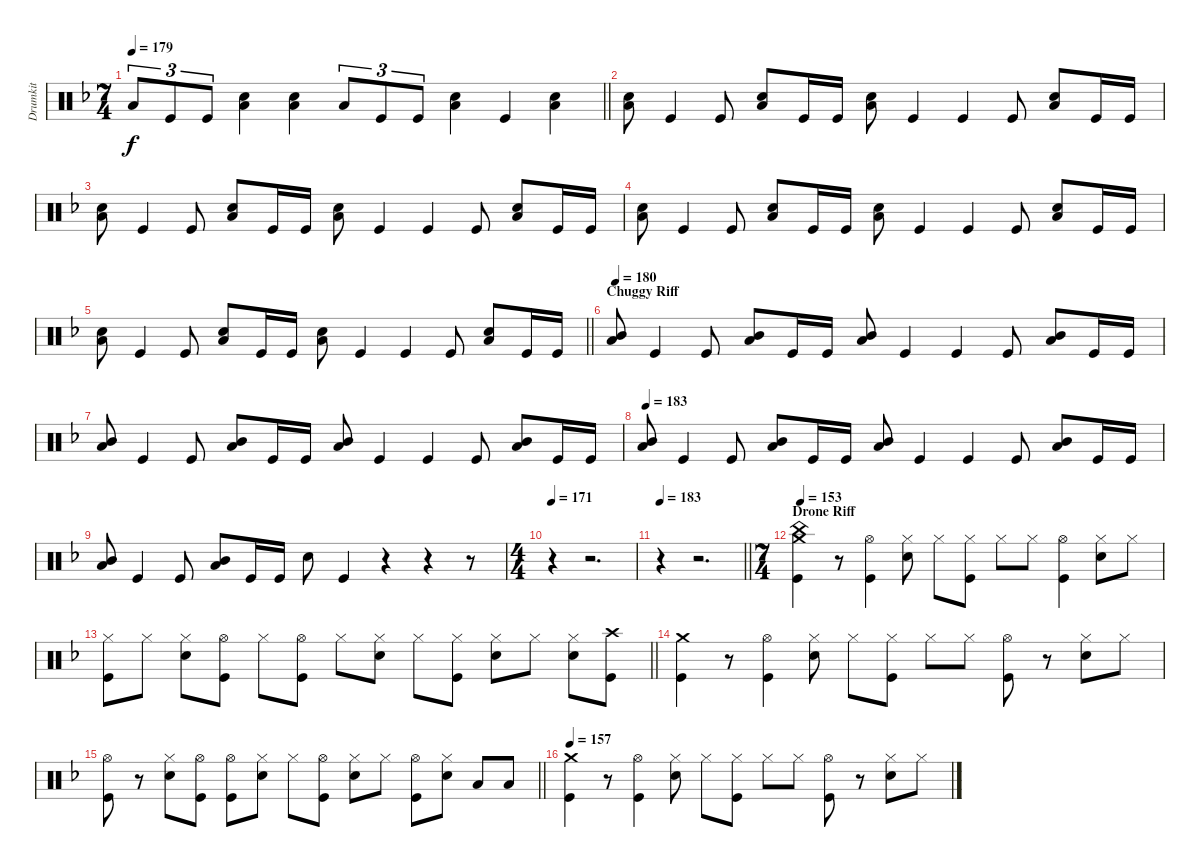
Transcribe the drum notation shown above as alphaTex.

\track ("Drumkit" "Drumkit") {instrument percussion}
\staff {score}
\articulation defaults
\ts (7 4)
\tempo 179
\clef neutral
\barLineRight lightlight
\ks dminor "Low Floor Tom (hit)".8{tu (3 2) dy f} "Kick (hit)".8{tu (3 2)} "Kick (hit)".8{tu (3 2)}
("Snare (hit) 2" "Low Floor Tom (hit)").4 ("Snare (hit) 2" "Low Floor Tom (hit)").4 "Low Floor Tom (hit)".8{tu (3 2)} "Kick (hit)".8{tu (3 2)} "Kick (hit)".8{tu (3 2)} ("Snare (hit) 2" "Low Floor Tom (hit)").4 "Kick (hit)".4 ("Snare (hit) 2" "Low Floor Tom (hit)").4 |
("Low Floor Tom (hit)" "Snare (hit) 2").8 "Kick (hit)".4 "Kick (hit)".8 ("Low Floor Tom (hit)" "Snare (hit) 2").8 "Kick (hit)".16 "Kick (hit)".16 ("Low Floor Tom (hit)" "Snare (hit) 2").8 "Kick (hit)".4 "Kick (hit)".4 "Kick (hit)".8 ("Low Floor Tom (hit)" "Snare (hit) 2").8 "Kick (hit)".16 "Kick (hit)".16 |
("Low Floor Tom (hit)" "Snare (hit) 2").8 "Kick (hit)".4 "Kick (hit)".8 ("Low Floor Tom (hit)" "Snare (hit) 2").8 "Kick (hit)".16 "Kick (hit)".16 ("Low Floor Tom (hit)" "Snare (hit) 2").8 "Kick (hit)".4 "Kick (hit)".4 "Kick (hit)".8 ("Low Floor Tom (hit)" "Snare (hit) 2").8 "Kick (hit)".16 "Kick (hit)".16 |
("Low Floor Tom (hit)" "Snare (hit) 2").8 "Kick (hit)".4 "Kick (hit)".8 ("Low Floor Tom (hit)" "Snare (hit) 2").8 "Kick (hit)".16 "Kick (hit)".16 ("Low Floor Tom (hit)" "Snare (hit) 2").8 "Kick (hit)".4 "Kick (hit)".4 "Kick (hit)".8 ("Low Floor Tom (hit)" "Snare (hit) 2").8 "Kick (hit)".16 "Kick (hit)".16 |
\barLineRight lightlight
("Low Floor Tom (hit)" "Snare (hit) 2").8 "Kick (hit)".4 "Kick (hit)".8 ("Low Floor Tom (hit)" "Snare (hit) 2").8 "Kick (hit)".16 "Kick (hit)".16 ("Low Floor Tom (hit)" "Snare (hit) 2").8 "Kick (hit)".4 "Kick (hit)".4 "Kick (hit)".8 ("Low Floor Tom (hit)" "Snare (hit) 2").8 "Kick (hit)".16 "Kick (hit)".16 |
\section ("" "Chuggy Riff")
\tempo 180
("Mid Tom (hit)" "Low Floor Tom (hit)").8 "Kick (hit)".4 "Kick (hit)".8 ("Mid Tom (hit)" "Low Floor Tom (hit)").8 "Kick (hit)".16 "Kick (hit)".16 ("Mid Tom (hit)" "Low Floor Tom (hit)").8 "Kick (hit)".4 "Kick (hit)".4 "Kick (hit)".8 ("Mid Tom (hit)" "Low Floor Tom (hit)").8 "Kick (hit)".16 "Kick (hit)".16 |
("Mid Tom (hit)" "Low Floor Tom (hit)").8 "Kick (hit)".4 "Kick (hit)".8 ("Mid Tom (hit)" "Low Floor Tom (hit)").8 "Kick (hit)".16 "Kick (hit)".16 ("Mid Tom (hit)" "Low Floor Tom (hit)").8 "Kick (hit)".4 "Kick (hit)".4 "Kick (hit)".8 ("Mid Tom (hit)" "Low Floor Tom (hit)").8 "Kick (hit)".16 "Kick (hit)".16 |
\tempo 183
("Mid Tom (hit)" "Low Floor Tom (hit)").8 "Kick (hit)".4 "Kick (hit)".8 ("Mid Tom (hit)" "Low Floor Tom (hit)").8 "Kick (hit)".16 "Kick (hit)".16 ("Mid Tom (hit)" "Low Floor Tom (hit)").8 "Kick (hit)".4 "Kick (hit)".4 "Kick (hit)".8 ("Mid Tom (hit)" "Low Floor Tom (hit)").8 "Kick (hit)".16 "Kick (hit)".16 |
("Mid Tom (hit)" "Low Floor Tom (hit)").8 "Kick (hit)".4 "Kick (hit)".8 ("Mid Tom (hit)" "Low Floor Tom (hit)").8 "Kick (hit)".16 "Kick (hit)".16 "Snare (hit) 2".8 "Kick (hit)".4 r.4 r.4 r.8 |
\ts (4 4)
\tempo 171
r.4 r.2{d} |
\tempo 183
\barLineRight lightlight
r.4 r.2{d} |
\ts (7 4)
\section ("" "Drone Riff")
\tempo 153
("Kick (hit)" "Crash medium (hit)" "China (hit)").4 r.8 ("Hi-Hat (open)" "Kick (hit)").4 ("Hi-Hat (closed)" "Snare (hit) 2").8 "Hi-Hat (closed)".8 ("Hi-Hat (closed)" "Kick (hit)").8 "Hi-Hat (closed)".8 "Hi-Hat (closed)".8 ("Hi-Hat (open)" "Kick (hit)").4 ("Hi-Hat (closed)" "Snare (hit) 2").8 "Hi-Hat (closed)".8 |
\barLineRight lightlight
("Kick (hit)" "Hi-Hat (closed)").8 "Hi-Hat (closed)".8 ("Hi-Hat (closed)" "Snare (hit) 2").8 ("Hi-Hat (open)" "Kick (hit)").8 "Hi-Hat (closed)".8 ("Hi-Hat (open)" "Kick (hit)").8 "Hi-Hat (closed)".8 ("Hi-Hat (closed)" "Snare (hit) 2").8 "Hi-Hat (closed)".8 ("Hi-Hat (closed)" "Kick (hit)").8 ("Hi-Hat (closed)" "Snare (hit) 2").8 "Hi-Hat (closed)".8 ("Hi-Hat (closed)" "Snare (hit) 2").8 ("Kick (hit)" "Crash high (hit)").8 |
("Kick (hit)" "Crash medium (hit)").4 r.8 ("Hi-Hat (open)" "Kick (hit)").4 ("Hi-Hat (closed)" "Snare (hit) 2").8 "Hi-Hat (closed)".8 ("Hi-Hat (closed)" "Kick (hit)").8 "Hi-Hat (closed)".8 "Hi-Hat (closed)".8 ("Hi-Hat (open)" "Kick (hit)").8 r.8 ("Hi-Hat (closed)" "Snare (hit) 2").8 "Hi-Hat (closed)".8 |
\barLineRight lightlight
("Hi-Hat (open)" "Kick (hit)").8 r.8 ("Hi-Hat (closed)" "Snare (hit) 2").8 ("Hi-Hat (open)" "Kick (hit)").8 ("Hi-Hat (open)" "Kick (hit)").8 ("Hi-Hat (closed)" "Snare (hit) 2").8 "Hi-Hat (closed)".8 ("Hi-Hat (open)" "Kick (hit)").8 ("Hi-Hat (closed)" "Snare (hit) 2").8 "Hi-Hat (closed)".8 ("Hi-Hat (open)" "Kick (hit)").8 ("Hi-Hat (closed)" "Snare (hit) 2").8 "Low Tom (hit)".8 "Low Tom (hit)".8 |
\tempo 157
("Kick (hit)" "Crash medium (hit)").4 r.8 ("Hi-Hat (open)" "Kick (hit)").4 ("Hi-Hat (closed)" "Snare (hit) 2").8 "Hi-Hat (closed)".8 ("Hi-Hat (closed)" "Kick (hit)").8 "Hi-Hat (closed)".8 "Hi-Hat (closed)".8 ("Hi-Hat (open)" "Kick (hit)").8 r.8 ("Hi-Hat (closed)" "Snare (hit) 2").8 "Hi-Hat (closed)".8
